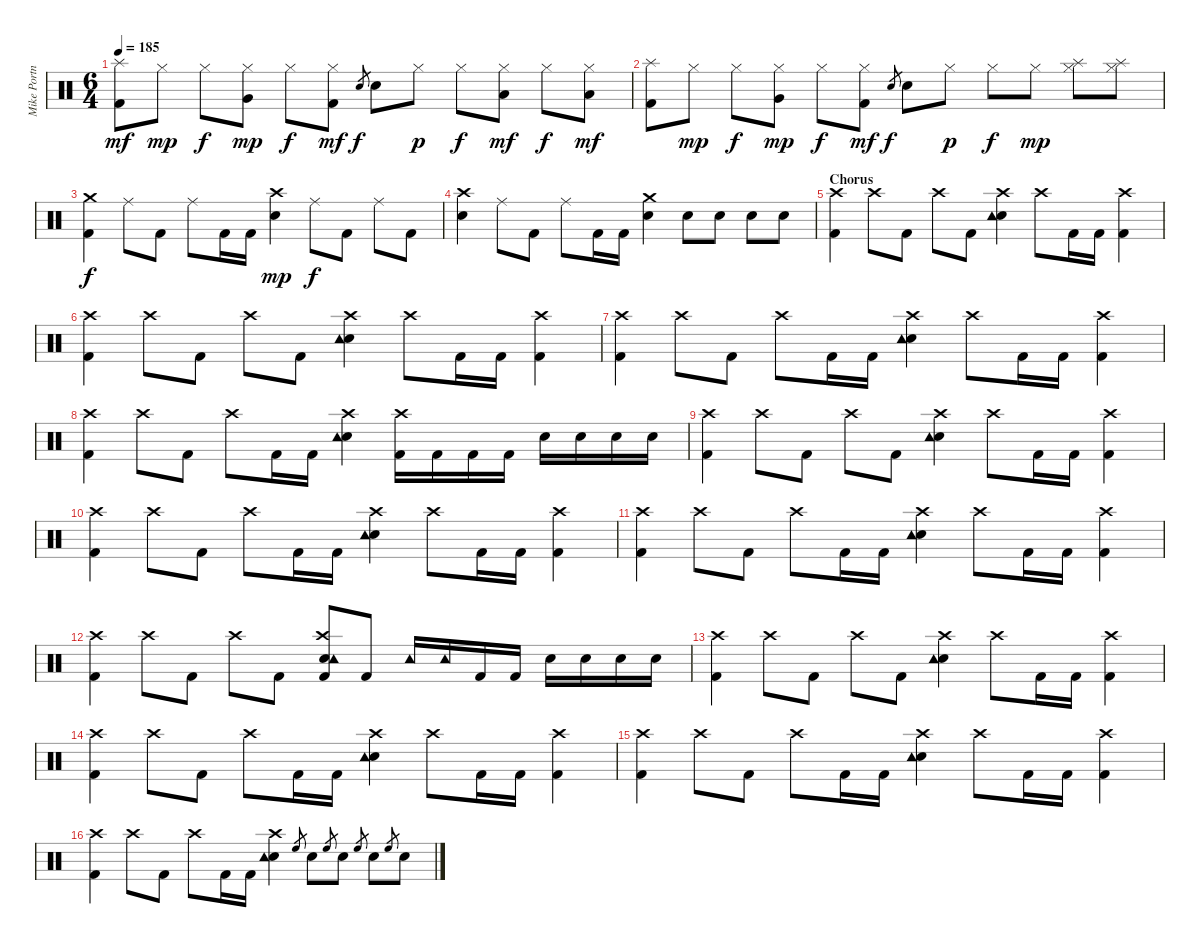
\track ("Mike Portnoy" "Mike Portn") {instrument percussion}
\staff {score}
\articulation defaults
\ts (6 4)
\tempo 185
\clef neutral
\ks c
("Splash (hit)" "Kick (hit) 2").8{dy mf} "Hi-Hat (closed)".8{dy mp} "Hi-Hat (closed)".8{dy f} ("Hi-Hat (closed)" "Very Low Tom (hit)").8{dy mp} "Hi-Hat (closed)".8{dy f} ("Hi-Hat (closed)" "Kick (hit) 2").8{dy mf} "Snare (hit) 2".8{gr dy f} "Snare (hit) 2".8 "Hi-Hat (closed)".8{dy p} "Hi-Hat (closed)".8{dy f} ("Hi-Hat (closed)" "Low Tom (hit)").8{dy mf} "Hi-Hat (closed)".8{dy f} ("Hi-Hat (closed)" "Low Tom (hit)").8{dy mf} |
("Splash (hit)" "Kick (hit) 2").8 "Hi-Hat (closed)".8{dy mp} "Hi-Hat (closed)".8{dy f} ("Hi-Hat (closed)" "Very Low Tom (hit)").8{dy mp} "Hi-Hat (closed)".8{dy f} ("Hi-Hat (closed)" "Kick (hit) 2").8{dy mf} "Snare (hit) 2".8{gr dy f} "Snare (hit) 2".8 "Hi-Hat (closed)".8{dy p} "Hi-Hat (closed)".8{dy f} "Hi-Hat (closed)".8{dy mp} ("Hi-Hat (closed)" "Splash (hit)").8 ("Hi-Hat (closed)" "Splash (hit)").8 |
("Crash medium (hit)" "Kick (hit) 2").4{dy f} "Ride (middle)".8 "Kick (hit) 2".8 "Ride (middle)".8 "Kick (hit) 2".16 "Kick (hit) 2".16 ("Snare (hit) 2" "Crash high (hit)").4{dy mp} "Ride (middle)".8{dy f} "Kick (hit) 2".8 "Ride (middle)".8 "Kick (hit) 2".8 |
("Snare (hit) 2" "Crash high (hit)").4 "Ride (middle)".8 "Kick (hit) 2".8 "Ride (middle)".8 "Kick (hit) 2".16 "Kick (hit) 2".16 ("Snare (hit) 2" "Crash medium (hit)").4 "Snare (hit) 2".8 "Snare (hit) 2".8 "Snare (hit) 2".8 "Snare (hit) 2".8 |
\section ("" "Chorus")
("Crash high (hit)" "Kick (hit) 2").4 "Crash high (hit)".8 "Kick (hit) 2".8 "Crash high (hit)".8 "Kick (hit) 2".8 ("Snare (hit) 2" "Crash high (hit)" "Tambourine (hit)").4 "Crash high (hit)".8 "Kick (hit) 2".16 "Kick (hit) 2".16 ("Crash high (hit)" "Kick (hit) 2").4 |
("Crash high (hit)" "Kick (hit) 2").4 "Crash high (hit)".8 "Kick (hit) 2".8 "Crash high (hit)".8 "Kick (hit) 2".8 ("Snare (hit) 2" "Crash high (hit)" "Tambourine (hit)").4 "Crash high (hit)".8 "Kick (hit) 2".16 "Kick (hit) 2".16 ("Crash high (hit)" "Kick (hit) 2").4 |
("Crash high (hit)" "Kick (hit) 2").4 "Crash high (hit)".8 "Kick (hit) 2".8 "Crash high (hit)".8 "Kick (hit) 2".16 "Kick (hit) 2".16 ("Snare (hit) 2" "Crash high (hit)" "Tambourine (hit)").4 "Crash high (hit)".8 "Kick (hit) 2".16 "Kick (hit) 2".16 ("Crash high (hit)" "Kick (hit) 2").4 |
("Crash high (hit)" "Kick (hit) 2").4 "Crash high (hit)".8 "Kick (hit) 2".8 "Crash high (hit)".8 "Kick (hit) 2".16 "Kick (hit) 2".16 ("Snare (hit) 2" "Crash high (hit)" "Tambourine (hit)").4 ("Crash high (hit)" "Kick (hit) 2").16 "Kick (hit) 2".16 "Kick (hit) 2".16 "Kick (hit) 2".16 "Snare (hit) 2".16 "Snare (hit) 2".16 "Snare (hit) 2".16 "Snare (hit) 2".16 |
("Crash high (hit)" "Kick (hit) 2").4 "Crash high (hit)".8 "Kick (hit) 2".8 "Crash high (hit)".8 "Kick (hit) 2".8 ("Snare (hit) 2" "Crash high (hit)" "Tambourine (hit)").4 "Crash high (hit)".8 "Kick (hit) 2".16 "Kick (hit) 2".16 ("Crash high (hit)" "Kick (hit) 2").4 |
("Crash high (hit)" "Kick (hit) 2").4 "Crash high (hit)".8 "Kick (hit) 2".8 "Crash high (hit)".8 "Kick (hit) 2".16 "Kick (hit) 2".16 ("Snare (hit) 2" "Crash high (hit)" "Tambourine (hit)").4 "Crash high (hit)".8 "Kick (hit) 2".16 "Kick (hit) 2".16 ("Crash high (hit)" "Kick (hit) 2").4 |
("Crash high (hit)" "Kick (hit) 2").4 "Crash high (hit)".8 "Kick (hit) 2".8 "Crash high (hit)".8 "Kick (hit) 2".16 "Kick (hit) 2".16 ("Snare (hit) 2" "Crash high (hit)" "Tambourine (hit)").4 "Crash high (hit)".8 "Kick (hit) 2".16 "Kick (hit) 2".16 ("Crash high (hit)" "Kick (hit) 2").4 |
("Crash high (hit)" "Kick (hit) 2").4 "Crash high (hit)".8 "Kick (hit) 2".8 "Crash high (hit)".8 "Kick (hit) 2".8 ("Snare (hit) 2" "Crash high (hit)" "Tambourine (hit)" "Kick (hit) 2").8 "Kick (hit) 2".8 "Tambourine (hit)".16 "Tambourine (hit)".16 "Kick (hit) 2".16 "Kick (hit) 2".16 "Snare (hit) 2".16 "Snare (hit) 2".16 "Snare (hit) 2".16 "Snare (hit) 2".16 |
("Crash high (hit)" "Kick (hit) 2").4 "Crash high (hit)".8 "Kick (hit) 2".8 "Crash high (hit)".8 "Kick (hit) 2".8 ("Snare (hit) 2" "Crash high (hit)" "Tambourine (hit)").4 "Crash high (hit)".8 "Kick (hit) 2".16 "Kick (hit) 2".16 ("Crash high (hit)" "Kick (hit) 2").4 |
("Crash high (hit)" "Kick (hit) 2").4 "Crash high (hit)".8 "Kick (hit) 2".8 "Crash high (hit)".8 "Kick (hit) 2".16 "Kick (hit) 2".16 ("Snare (hit) 2" "Crash high (hit)" "Tambourine (hit)").4 "Crash high (hit)".8 "Kick (hit) 2".16 "Kick (hit) 2".16 ("Crash high (hit)" "Kick (hit) 2").4 |
("Crash high (hit)" "Kick (hit) 2").4 "Crash high (hit)".8 "Kick (hit) 2".8 "Crash high (hit)".8 "Kick (hit) 2".16 "Kick (hit) 2".16 ("Snare (hit) 2" "Crash high (hit)" "Tambourine (hit)").4 "Crash high (hit)".8 "Kick (hit) 2".16 "Kick (hit) 2".16 ("Crash high (hit)" "Kick (hit) 2").4 |
("Crash high (hit)" "Kick (hit) 2").4 "Crash high (hit)".8 "Kick (hit) 2".8 "Crash high (hit)".8 "Kick (hit) 2".16 "Kick (hit) 2".16 ("Snare (hit) 2" "Crash high (hit)" "Tambourine (hit)").4 "High Floor Tom (hit)".8{gr} "Snare (hit) 2".8 "High Floor Tom (hit)".8{gr} "Snare (hit) 2".8 "High Floor Tom (hit)".8{gr} "Snare (hit) 2".8 "High Floor Tom (hit)".8{gr} "Snare (hit) 2".8
